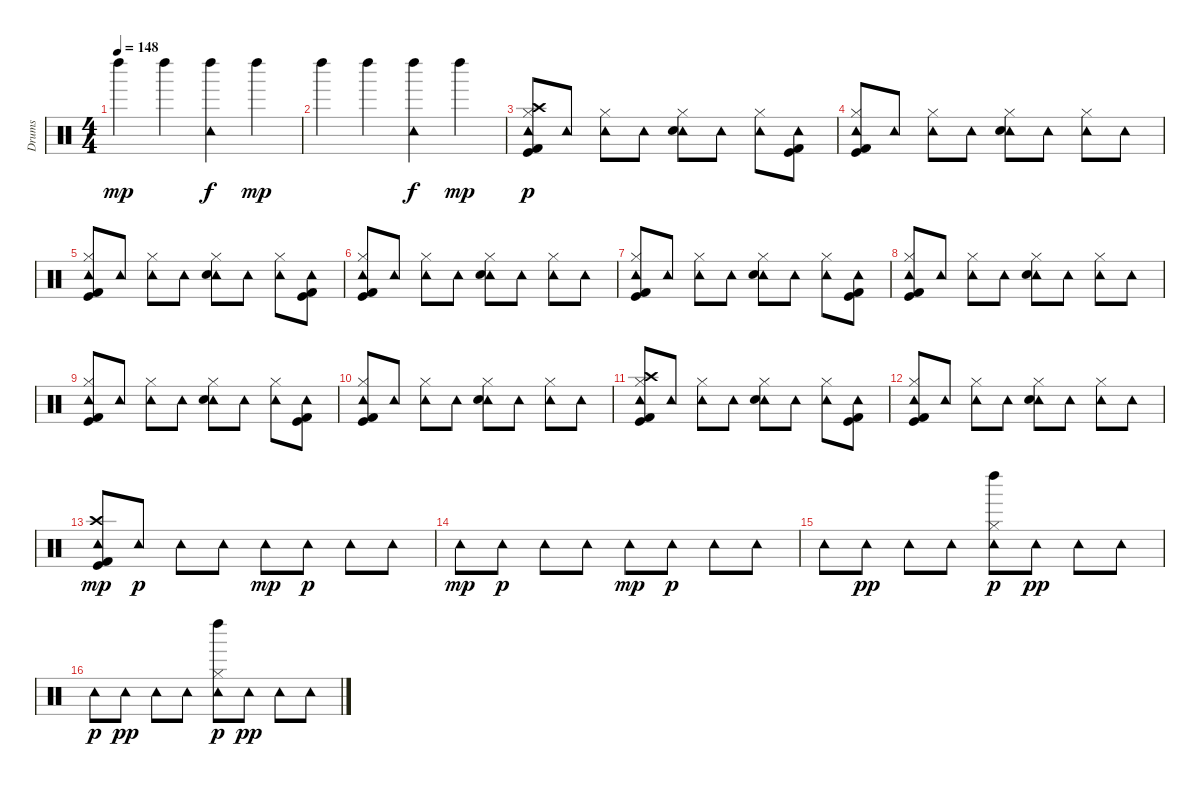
\track ("Drums" "Drums") {instrument percussion}
\staff {score}
\articulation defaults
\ts (4 4)
\tempo 148
\clef neutral
\ks c "Left Maraca (hit)".4{dy mp} "Left Maraca (hit)".4
("Tambourine (hit)" "Left Maraca (hit)").4{dy f} "Left Maraca (hit)".4{dy mp} |
"Left Maraca (hit)".4 "Left Maraca (hit)".4 ("Tambourine (hit)" "Left Maraca (hit)").4{dy f} "Left Maraca (hit)".4{dy mp} |
("Hi-Hat (closed)" "Tambourine (hit)" "Crash high (hit)" "Kick (hit) 2" "Kick (hit)").8{dy p} "Tambourine (hit)".8 ("Hi-Hat (closed)" "Tambourine (hit)").8 "Tambourine (hit)".8 ("Hi-Hat (closed)" "Tambourine (hit)" "Electric Snare (hit)").8 "Tambourine (hit)".8 ("Hi-Hat (closed)" "Tambourine (hit)").8 ("Tambourine (hit)" "Kick (hit) 2" "Kick (hit)").8 |
("Hi-Hat (closed)" "Tambourine (hit)" "Kick (hit) 2" "Kick (hit)").8 "Tambourine (hit)".8 ("Hi-Hat (closed)" "Tambourine (hit)").8 "Tambourine (hit)".8 ("Hi-Hat (closed)" "Tambourine (hit)" "Electric Snare (hit)").8 "Tambourine (hit)".8 ("Hi-Hat (closed)" "Tambourine (hit)").8 "Tambourine (hit)".8 |
("Hi-Hat (closed)" "Tambourine (hit)" "Kick (hit) 2" "Kick (hit)").8 "Tambourine (hit)".8 ("Hi-Hat (closed)" "Tambourine (hit)").8 "Tambourine (hit)".8 ("Hi-Hat (closed)" "Tambourine (hit)" "Electric Snare (hit)").8 "Tambourine (hit)".8 ("Hi-Hat (closed)" "Tambourine (hit)").8 ("Tambourine (hit)" "Kick (hit) 2" "Kick (hit)").8 |
("Hi-Hat (closed)" "Tambourine (hit)" "Kick (hit) 2" "Kick (hit)").8 "Tambourine (hit)".8 ("Hi-Hat (closed)" "Tambourine (hit)").8 "Tambourine (hit)".8 ("Hi-Hat (closed)" "Tambourine (hit)" "Electric Snare (hit)").8 "Tambourine (hit)".8 ("Hi-Hat (closed)" "Tambourine (hit)").8 "Tambourine (hit)".8 |
("Hi-Hat (closed)" "Tambourine (hit)" "Kick (hit) 2" "Kick (hit)").8 "Tambourine (hit)".8 ("Hi-Hat (closed)" "Tambourine (hit)").8 "Tambourine (hit)".8 ("Hi-Hat (closed)" "Tambourine (hit)" "Electric Snare (hit)").8 "Tambourine (hit)".8 ("Hi-Hat (closed)" "Tambourine (hit)").8 ("Tambourine (hit)" "Kick (hit) 2" "Kick (hit)").8 |
("Hi-Hat (closed)" "Tambourine (hit)" "Kick (hit) 2" "Kick (hit)").8 "Tambourine (hit)".8 ("Hi-Hat (closed)" "Tambourine (hit)").8 "Tambourine (hit)".8 ("Hi-Hat (closed)" "Tambourine (hit)" "Electric Snare (hit)").8 "Tambourine (hit)".8 ("Hi-Hat (closed)" "Tambourine (hit)").8 "Tambourine (hit)".8 |
("Hi-Hat (closed)" "Tambourine (hit)" "Kick (hit) 2" "Kick (hit)").8 "Tambourine (hit)".8 ("Hi-Hat (closed)" "Tambourine (hit)").8 "Tambourine (hit)".8 ("Hi-Hat (closed)" "Tambourine (hit)" "Electric Snare (hit)").8 "Tambourine (hit)".8 ("Hi-Hat (closed)" "Tambourine (hit)").8 ("Tambourine (hit)" "Kick (hit) 2" "Kick (hit)").8 |
("Hi-Hat (closed)" "Tambourine (hit)" "Kick (hit) 2" "Kick (hit)").8 "Tambourine (hit)".8 ("Hi-Hat (closed)" "Tambourine (hit)").8 "Tambourine (hit)".8 ("Hi-Hat (closed)" "Tambourine (hit)" "Electric Snare (hit)").8 "Tambourine (hit)".8 ("Hi-Hat (closed)" "Tambourine (hit)").8 "Tambourine (hit)".8 |
("Hi-Hat (closed)" "Tambourine (hit)" "Crash high (hit)" "Kick (hit) 2" "Kick (hit)").8 "Tambourine (hit)".8 ("Hi-Hat (closed)" "Tambourine (hit)").8 "Tambourine (hit)".8 ("Hi-Hat (closed)" "Tambourine (hit)" "Electric Snare (hit)").8 "Tambourine (hit)".8 ("Hi-Hat (closed)" "Tambourine (hit)").8 ("Tambourine (hit)" "Kick (hit) 2" "Kick (hit)").8 |
("Hi-Hat (closed)" "Tambourine (hit)" "Kick (hit) 2" "Kick (hit)").8 "Tambourine (hit)".8 ("Hi-Hat (closed)" "Tambourine (hit)").8 "Tambourine (hit)".8 ("Hi-Hat (closed)" "Tambourine (hit)" "Electric Snare (hit)").8 "Tambourine (hit)".8 ("Hi-Hat (closed)" "Tambourine (hit)").8 "Tambourine (hit)".8 |
("Tambourine (hit)" "Crash high (hit)" "Kick (hit)" "Kick (hit) 2").8{dy mp} "Tambourine (hit)".8{dy p} "Tambourine (hit)".8 "Tambourine (hit)".8 "Tambourine (hit)".8{dy mp} "Tambourine (hit)".8{dy p} "Tambourine (hit)".8 "Tambourine (hit)".8 |
"Tambourine (hit)".8{dy mp} "Tambourine (hit)".8{dy p} "Tambourine (hit)".8 "Tambourine (hit)".8 "Tambourine (hit)".8{dy mp} "Tambourine (hit)".8{dy p} "Tambourine (hit)".8 "Tambourine (hit)".8 |
"Tambourine (hit)".8 "Tambourine (hit)".8{dy pp} "Tambourine (hit)".8 "Tambourine (hit)".8 ("Tambourine (hit)" "Hi-Hat (closed)" "Left Maraca (hit)").8{dy p} "Tambourine (hit)".8{dy pp} "Tambourine (hit)".8 "Tambourine (hit)".8 |
"Tambourine (hit)".8{dy p} "Tambourine (hit)".8{dy pp} "Tambourine (hit)".8 "Tambourine (hit)".8 ("Tambourine (hit)" "Hi-Hat (closed)" "Left Maraca (hit)").8{dy p} "Tambourine (hit)".8{dy pp} "Tambourine (hit)".8 "Tambourine (hit)".8
